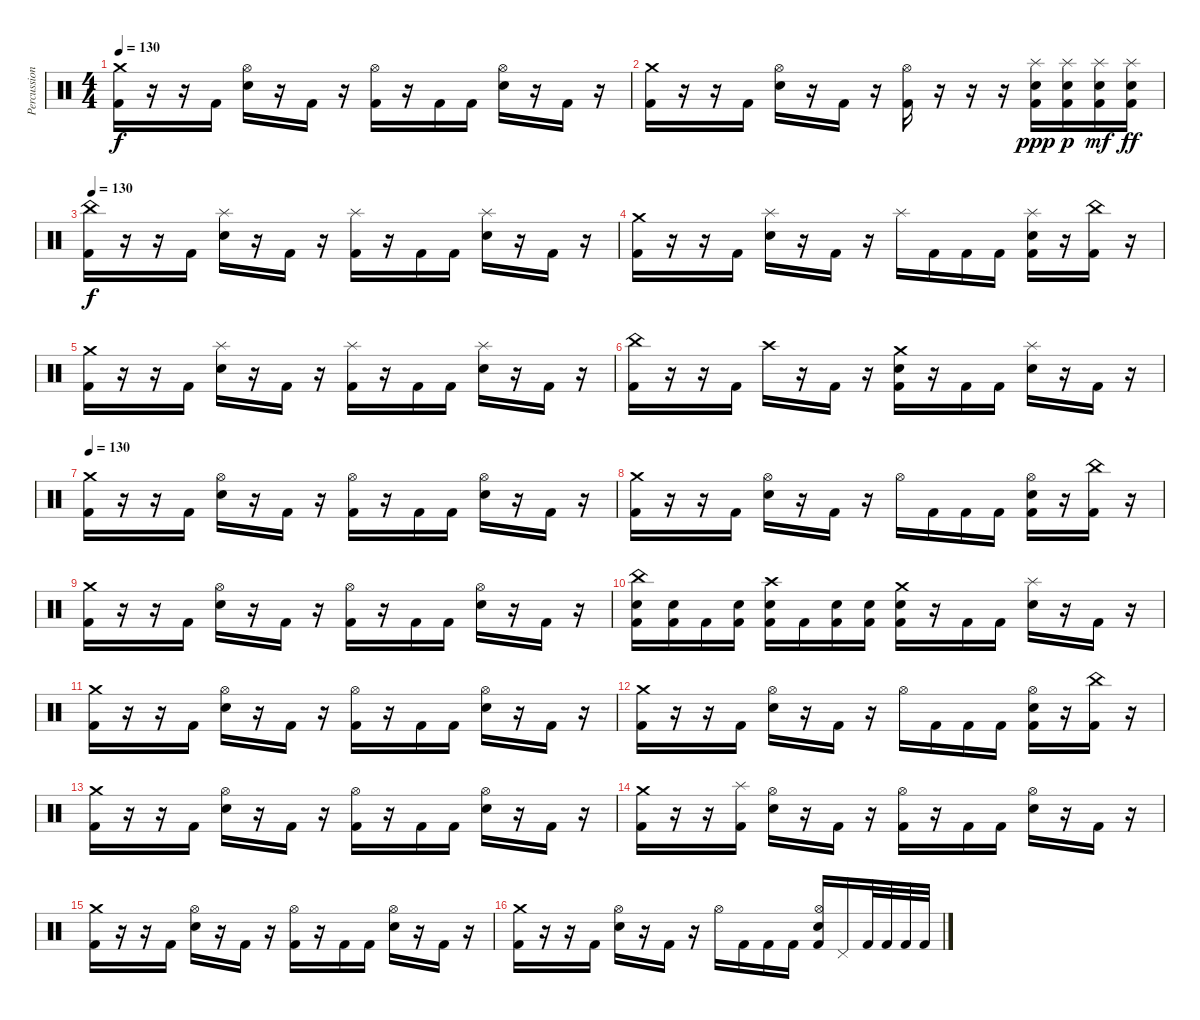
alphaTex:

\track ("Percussion" "Percussion") {instrument percussion}
\staff {score}
\articulation defaults
\ts (4 4)
\tempo 130
\clef neutral
\ks c
("Crash medium (hit)" "Kick (hit) 2").16{dy f} r.16 r.16 "Kick (hit) 2".16 ("Hi-Hat (open)" "Electric Snare (hit)").16 r.16 "Kick (hit) 2".16 r.16 ("Hi-Hat (open)" "Kick (hit) 2").16 r.16 "Kick (hit) 2".16 "Kick (hit) 2".16 ("Hi-Hat (open)" "Electric Snare (hit)").16 r.16 "Kick (hit) 2".16 r.16 |
("Crash medium (hit)" "Kick (hit) 2").16 r.16 r.16 "Kick (hit) 2".16 ("Hi-Hat (open)" "Electric Snare (hit)").16 r.16 "Kick (hit) 2".16 r.16 ("Hi-Hat (open)" "Kick (hit) 2").16 r.16 r.16 r.16 ("Splash (hit)" "Electric Snare (hit)" "Kick (hit) 2").16{dy ppp} ("Splash (hit)" "Electric Snare (hit)" "Kick (hit) 2").16{dy p} ("Splash (hit)" "Electric Snare (hit)" "Kick (hit) 2").16{dy mf} ("Splash (hit)" "Electric Snare (hit)" "Kick (hit) 2").16{dy ff} |
\tempo 130
("China (hit)" "Kick (hit) 2").16{dy f} r.16 r.16 "Kick (hit) 2".16 ("Splash (hit)" "Electric Snare (hit)").16 r.16 "Kick (hit) 2".16 r.16 ("Splash (hit)" "Kick (hit) 2").16 r.16 "Kick (hit) 2".16 "Kick (hit) 2".16 ("Splash (hit)" "Electric Snare (hit)").16 r.16 "Kick (hit) 2".16 r.16 |
("Crash medium (hit)" "Kick (hit) 2").16 r.16 r.16 "Kick (hit) 2".16 ("Splash (hit)" "Electric Snare (hit)").16 r.16 "Kick (hit) 2".16 r.16 "Splash (hit)".16 "Kick (hit) 2".16 "Kick (hit) 2".16 "Kick (hit) 2".16 ("Splash (hit)" "Electric Snare (hit)" "Kick (hit) 2").16 r.16 ("China (hit)" "Kick (hit) 2").16 r.16 |
("Crash medium (hit)" "Kick (hit) 2").16 r.16 r.16 "Kick (hit) 2".16 ("Splash (hit)" "Electric Snare (hit)").16 r.16 "Kick (hit) 2".16 r.16 ("Splash (hit)" "Kick (hit) 2").16 r.16 "Kick (hit) 2".16 "Kick (hit) 2".16 ("Splash (hit)" "Electric Snare (hit)").16 r.16 "Kick (hit) 2".16 r.16 |
("China (hit)" "Kick (hit) 2").16 r.16 r.16 "Kick (hit) 2".16 "Crash high (hit)".16 r.16 "Kick (hit) 2".16 r.16 ("Crash medium (hit)" "Electric Snare (hit)" "Kick (hit) 2").16 r.16 "Kick (hit) 2".16 "Kick (hit) 2".16 ("Splash (hit)" "Electric Snare (hit)").16 r.16 "Kick (hit) 2".16 r.16 |
\tempo 130
("Crash medium (hit)" "Kick (hit) 2").16 r.16 r.16 "Kick (hit) 2".16 ("Hi-Hat (open)" "Electric Snare (hit)").16 r.16 "Kick (hit) 2".16 r.16 ("Hi-Hat (open)" "Kick (hit) 2").16 r.16 "Kick (hit) 2".16 "Kick (hit) 2".16 ("Hi-Hat (open)" "Electric Snare (hit)").16 r.16 "Kick (hit) 2".16 r.16 |
("Crash medium (hit)" "Kick (hit) 2").16 r.16 r.16 "Kick (hit) 2".16 ("Hi-Hat (open)" "Electric Snare (hit)").16 r.16 "Kick (hit) 2".16 r.16 "Hi-Hat (open)".16 "Kick (hit) 2".16 "Kick (hit) 2".16 "Kick (hit) 2".16 ("Hi-Hat (open)" "Electric Snare (hit)" "Kick (hit) 2").16 r.16 ("China (hit)" "Kick (hit) 2").16 r.16 |
("Crash medium (hit)" "Kick (hit) 2").16 r.16 r.16 "Kick (hit) 2".16 ("Hi-Hat (open)" "Electric Snare (hit)").16 r.16 "Kick (hit) 2".16 r.16 ("Hi-Hat (open)" "Kick (hit) 2").16 r.16 "Kick (hit) 2".16 "Kick (hit) 2".16 ("Hi-Hat (open)" "Electric Snare (hit)").16 r.16 "Kick (hit) 2".16 r.16 |
("China (hit)" "Electric Snare (hit)" "Kick (hit) 2").16 ("Electric Snare (hit)" "Kick (hit) 2").16 "Kick (hit) 2".16 ("Electric Snare (hit)" "Kick (hit) 2").16 ("Crash high (hit)" "Electric Snare (hit)" "Kick (hit) 2").16 "Kick (hit) 2".16 ("Electric Snare (hit)" "Kick (hit) 2").16 ("Electric Snare (hit)" "Kick (hit) 2").16 ("Crash medium (hit)" "Electric Snare (hit)" "Kick (hit) 2").16 r.16 "Kick (hit) 2".16 "Kick (hit) 2".16 ("Splash (hit)" "Electric Snare (hit)").16 r.16 "Kick (hit) 2".16 r.16 |
("Crash medium (hit)" "Kick (hit) 2").16 r.16 r.16 "Kick (hit) 2".16 ("Hi-Hat (open)" "Electric Snare (hit)").16 r.16 "Kick (hit) 2".16 r.16 ("Hi-Hat (open)" "Kick (hit) 2").16 r.16 "Kick (hit) 2".16 "Kick (hit) 2".16 ("Hi-Hat (open)" "Electric Snare (hit)").16 r.16 "Kick (hit) 2".16 r.16 |
("Crash medium (hit)" "Kick (hit) 2").16 r.16 r.16 "Kick (hit) 2".16 ("Hi-Hat (open)" "Electric Snare (hit)").16 r.16 "Kick (hit) 2".16 r.16 "Hi-Hat (open)".16 "Kick (hit) 2".16 "Kick (hit) 2".16 "Kick (hit) 2".16 ("Hi-Hat (open)" "Electric Snare (hit)" "Kick (hit) 2").16 r.16 ("China (hit)" "Kick (hit) 2").16 r.16 |
("Crash medium (hit)" "Kick (hit) 2").16 r.16 r.16 "Kick (hit) 2".16 ("Hi-Hat (open)" "Electric Snare (hit)").16 r.16 "Kick (hit) 2".16 r.16 ("Hi-Hat (open)" "Kick (hit) 2").16 r.16 "Kick (hit) 2".16 "Kick (hit) 2".16 ("Hi-Hat (open)" "Electric Snare (hit)").16 r.16 "Kick (hit) 2".16 r.16 |
("Crash medium (hit)" "Kick (hit) 2").16 r.16 r.16 ("Splash (hit)" "Kick (hit) 2").16 ("Hi-Hat (open)" "Electric Snare (hit)").16 r.16 "Kick (hit) 2".16 r.16 ("Hi-Hat (open)" "Kick (hit) 2").16 r.16 "Kick (hit) 2".16 "Kick (hit) 2".16 ("Hi-Hat (open)" "Electric Snare (hit)").16 r.16 "Kick (hit) 2".16 r.16 |
("Crash medium (hit)" "Kick (hit) 2").16 r.16 r.16 "Kick (hit) 2".16 ("Hi-Hat (open)" "Electric Snare (hit)").16 r.16 "Kick (hit) 2".16 r.16 ("Hi-Hat (open)" "Kick (hit) 2").16 r.16 "Kick (hit) 2".16 "Kick (hit) 2".16 ("Hi-Hat (open)" "Electric Snare (hit)").16 r.16 "Kick (hit) 2".16 r.16 |
("Crash medium (hit)" "Kick (hit) 2").16 r.16 r.16 "Kick (hit) 2".16 ("Hi-Hat (open)" "Electric Snare (hit)").16 r.16 "Kick (hit) 2".16 r.16 "Hi-Hat (open)".16 "Kick (hit) 2".16 "Kick (hit) 2".16 "Kick (hit) 2".16 ("Hi-Hat (open)" "Electric Snare (hit)" "Kick (hit) 2").16 "Pedal Hi-Hat (hit)".16 "Kick (hit) 2".32 "Kick (hit) 2".32 "Kick (hit) 2".32 "Kick (hit) 2".32
